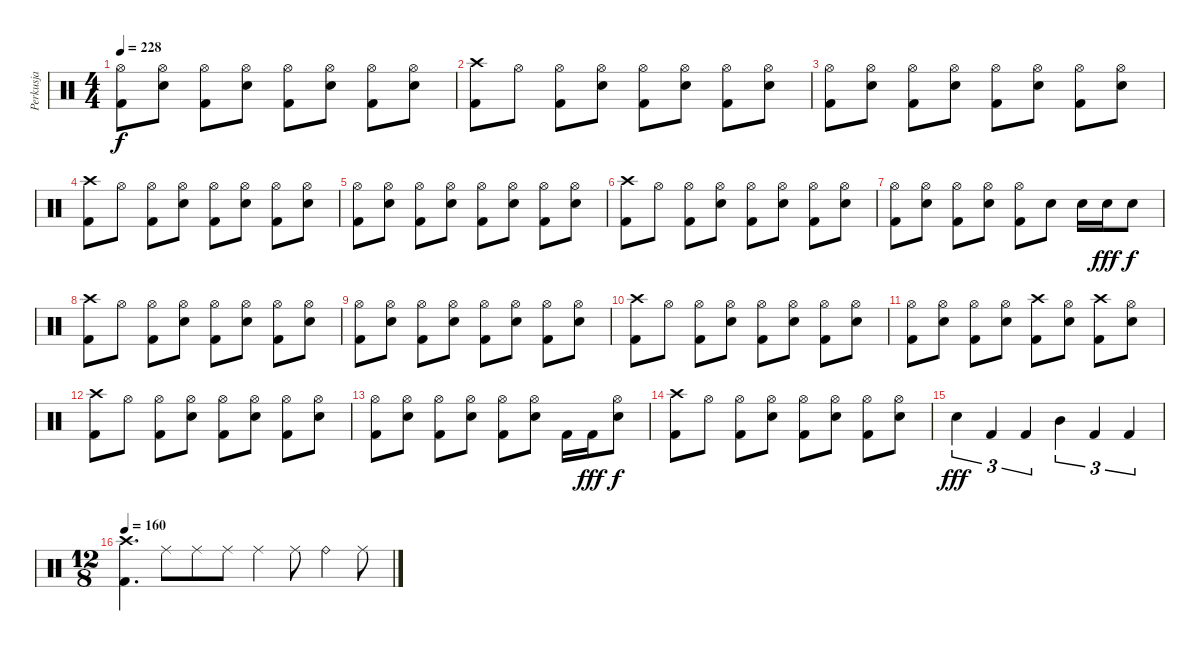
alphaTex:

\track ("Perkusja" "Perkusja") {instrument percussion bank 10}
\staff {score}
\articulation defaults
\ts (4 4)
\tempo 228
\clef neutral
\ks c
("Hi-Hat (open)" "Kick (hit) 2").8{dy f} ("Hi-Hat (open)" "Snare (hit) 2").8 ("Hi-Hat (open)" "Kick (hit) 2").8 ("Hi-Hat (open)" "Snare (hit) 2").8 ("Hi-Hat (open)" "Kick (hit) 2").8 ("Hi-Hat (open)" "Snare (hit) 2").8 ("Hi-Hat (open)" "Kick (hit) 2").8 ("Hi-Hat (open)" "Snare (hit) 2").8 |
("Crash high (hit)" "Kick (hit) 2").8 "Hi-Hat (open)".8 ("Hi-Hat (open)" "Kick (hit) 2").8 ("Hi-Hat (open)" "Snare (hit) 2").8 ("Hi-Hat (open)" "Kick (hit) 2").8 ("Hi-Hat (open)" "Snare (hit) 2").8 ("Hi-Hat (open)" "Kick (hit) 2").8 ("Hi-Hat (open)" "Snare (hit) 2").8 |
("Hi-Hat (open)" "Kick (hit) 2").8 ("Hi-Hat (open)" "Snare (hit) 2").8 ("Hi-Hat (open)" "Kick (hit) 2").8 ("Hi-Hat (open)" "Snare (hit) 2").8 ("Hi-Hat (open)" "Kick (hit) 2").8 ("Hi-Hat (open)" "Snare (hit) 2").8 ("Hi-Hat (open)" "Kick (hit) 2").8 ("Hi-Hat (open)" "Snare (hit) 2").8 |
("Crash high (hit)" "Kick (hit) 2").8 "Hi-Hat (open)".8 ("Hi-Hat (open)" "Kick (hit) 2").8 ("Hi-Hat (open)" "Snare (hit) 2").8 ("Hi-Hat (open)" "Kick (hit) 2").8 ("Hi-Hat (open)" "Snare (hit) 2").8 ("Hi-Hat (open)" "Kick (hit) 2").8 ("Hi-Hat (open)" "Snare (hit) 2").8 |
("Hi-Hat (open)" "Kick (hit) 2").8 ("Hi-Hat (open)" "Snare (hit) 2").8 ("Hi-Hat (open)" "Kick (hit) 2").8 ("Hi-Hat (open)" "Snare (hit) 2").8 ("Hi-Hat (open)" "Kick (hit) 2").8 ("Hi-Hat (open)" "Snare (hit) 2").8 ("Hi-Hat (open)" "Kick (hit) 2").8 ("Hi-Hat (open)" "Snare (hit) 2").8 |
("Crash high (hit)" "Kick (hit) 2").8 "Hi-Hat (open)".8 ("Hi-Hat (open)" "Kick (hit) 2").8 ("Hi-Hat (open)" "Snare (hit) 2").8 ("Hi-Hat (open)" "Kick (hit) 2").8 ("Hi-Hat (open)" "Snare (hit) 2").8 ("Hi-Hat (open)" "Kick (hit) 2").8 ("Hi-Hat (open)" "Snare (hit) 2").8 |
("Hi-Hat (open)" "Kick (hit) 2").8 ("Hi-Hat (open)" "Snare (hit) 2").8 ("Hi-Hat (open)" "Kick (hit) 2").8 ("Hi-Hat (open)" "Snare (hit) 2").8 ("Hi-Hat (open)" "Kick (hit) 2").8 "Snare (hit) 2".8 "Snare (hit) 2".16 "Snare (hit) 2".16{dy fff} "Snare (hit) 2".8{dy f} |
("Crash high (hit)" "Kick (hit) 2").8 "Hi-Hat (open)".8 ("Hi-Hat (open)" "Kick (hit) 2").8 ("Hi-Hat (open)" "Snare (hit) 2").8 ("Hi-Hat (open)" "Kick (hit) 2").8 ("Hi-Hat (open)" "Snare (hit) 2").8 ("Hi-Hat (open)" "Kick (hit) 2").8 ("Hi-Hat (open)" "Snare (hit) 2").8 |
("Hi-Hat (open)" "Kick (hit) 2").8 ("Hi-Hat (open)" "Snare (hit) 2").8 ("Hi-Hat (open)" "Kick (hit) 2").8 ("Hi-Hat (open)" "Snare (hit) 2").8 ("Hi-Hat (open)" "Kick (hit) 2").8 ("Hi-Hat (open)" "Snare (hit) 2").8 ("Hi-Hat (open)" "Kick (hit) 2").8 ("Hi-Hat (open)" "Snare (hit) 2").8 |
("Crash high (hit)" "Kick (hit) 2").8 "Hi-Hat (open)".8 ("Hi-Hat (open)" "Kick (hit) 2").8 ("Hi-Hat (open)" "Snare (hit) 2").8 ("Hi-Hat (open)" "Kick (hit) 2").8 ("Hi-Hat (open)" "Snare (hit) 2").8 ("Hi-Hat (open)" "Kick (hit) 2").8 ("Hi-Hat (open)" "Snare (hit) 2").8 |
("Hi-Hat (open)" "Kick (hit) 2").8 ("Hi-Hat (open)" "Snare (hit) 2").8 ("Hi-Hat (open)" "Kick (hit) 2").8 ("Hi-Hat (open)" "Snare (hit) 2").8 ("Crash high (hit)" "Kick (hit) 2").8 ("Hi-Hat (open)" "Snare (hit) 2").8 ("Crash high (hit)" "Kick (hit) 2").8 ("Hi-Hat (open)" "Snare (hit) 2").8 |
("Crash high (hit)" "Kick (hit) 2").8 "Hi-Hat (open)".8 ("Hi-Hat (open)" "Kick (hit) 2").8 ("Hi-Hat (open)" "Snare (hit) 2").8 ("Hi-Hat (open)" "Kick (hit) 2").8 ("Hi-Hat (open)" "Snare (hit) 2").8 ("Hi-Hat (open)" "Kick (hit) 2").8 ("Hi-Hat (open)" "Snare (hit) 2").8 |
("Hi-Hat (open)" "Kick (hit) 2").8 ("Hi-Hat (open)" "Snare (hit) 2").8 ("Hi-Hat (open)" "Kick (hit) 2").8 ("Hi-Hat (open)" "Snare (hit) 2").8 ("Hi-Hat (open)" "Kick (hit) 2").8 ("Hi-Hat (open)" "Snare (hit) 2").8 "Kick (hit) 2".16 "Kick (hit) 2".16{dy fff} ("Hi-Hat (open)" "Snare (hit) 2").8{dy f} |
("Crash high (hit)" "Kick (hit) 2").8 "Hi-Hat (open)".8 ("Hi-Hat (open)" "Kick (hit) 2").8 ("Hi-Hat (open)" "Snare (hit) 2").8 ("Hi-Hat (open)" "Kick (hit) 2").8 ("Hi-Hat (open)" "Snare (hit) 2").8 ("Hi-Hat (open)" "Kick (hit) 2").8 ("Hi-Hat (open)" "Snare (hit) 2").8 |
"Snare (hit) 2".4{tu (3 2) dy fff} "Kick (hit) 2".4{tu (3 2)} "Kick (hit) 2".4{tu (3 2)} "Mid Tom (hit)".4{tu (3 2)} "Kick (hit) 2".4{tu (3 2)} "Kick (hit) 2".4{tu (3 2)} |
\ts (12 8)
\tempo 160
("Crash high (hit)" "Kick (hit) 2").4{d} "Ride (middle)".8 "Ride (middle)".8 "Ride (middle)".8 "Ride (middle)".4 "Ride (middle)".8 "Ride (bell)".4 "Ride (middle)".8
